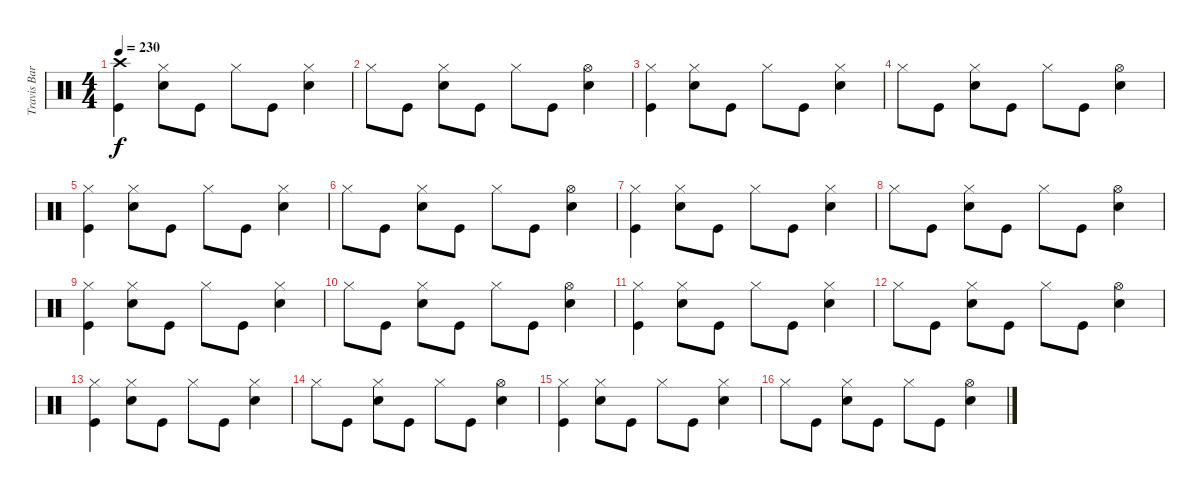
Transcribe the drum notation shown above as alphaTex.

\track ("Travis Barker" "Travis Bar") {instrument percussion}
\staff {score}
\articulation defaults
\ts (4 4)
\tempo 230
\clef neutral
\ks c
("Crash high (hit)" "Kick (hit)").4{dy f} ("Hi-Hat (closed)" "Electric Snare (hit)").8 "Kick (hit)".8 "Hi-Hat (closed)".8 "Kick (hit)".8 ("Hi-Hat (closed)" "Electric Snare (hit)").4 |
"Hi-Hat (closed)".8 "Kick (hit)".8 ("Hi-Hat (closed)" "Electric Snare (hit)").8 "Kick (hit)".8 "Hi-Hat (closed)".8 "Kick (hit)".8 ("Hi-Hat (open)" "Electric Snare (hit)").4 |
("Hi-Hat (closed)" "Kick (hit)").4 ("Hi-Hat (closed)" "Electric Snare (hit)").8 "Kick (hit)".8 "Hi-Hat (closed)".8 "Kick (hit)".8 ("Hi-Hat (closed)" "Electric Snare (hit)").4 |
"Hi-Hat (closed)".8 "Kick (hit)".8 ("Hi-Hat (closed)" "Electric Snare (hit)").8 "Kick (hit)".8 "Hi-Hat (closed)".8 "Kick (hit)".8 ("Hi-Hat (open)" "Electric Snare (hit)").4 |
("Hi-Hat (closed)" "Kick (hit)").4 ("Hi-Hat (closed)" "Electric Snare (hit)").8 "Kick (hit)".8 "Hi-Hat (closed)".8 "Kick (hit)".8 ("Hi-Hat (closed)" "Electric Snare (hit)").4 |
"Hi-Hat (closed)".8 "Kick (hit)".8 ("Hi-Hat (closed)" "Electric Snare (hit)").8 "Kick (hit)".8 "Hi-Hat (closed)".8 "Kick (hit)".8 ("Hi-Hat (open)" "Electric Snare (hit)").4 |
("Hi-Hat (closed)" "Kick (hit)").4 ("Hi-Hat (closed)" "Electric Snare (hit)").8 "Kick (hit)".8 "Hi-Hat (closed)".8 "Kick (hit)".8 ("Hi-Hat (closed)" "Electric Snare (hit)").4 |
"Hi-Hat (closed)".8 "Kick (hit)".8 ("Hi-Hat (closed)" "Electric Snare (hit)").8 "Kick (hit)".8 "Hi-Hat (closed)".8 "Kick (hit)".8 ("Hi-Hat (open)" "Electric Snare (hit)").4 |
("Hi-Hat (closed)" "Kick (hit)").4 ("Hi-Hat (closed)" "Electric Snare (hit)").8 "Kick (hit)".8 "Hi-Hat (closed)".8 "Kick (hit)".8 ("Hi-Hat (closed)" "Electric Snare (hit)").4 |
"Hi-Hat (closed)".8 "Kick (hit)".8 ("Hi-Hat (closed)" "Electric Snare (hit)").8 "Kick (hit)".8 "Hi-Hat (closed)".8 "Kick (hit)".8 ("Hi-Hat (open)" "Electric Snare (hit)").4 |
("Hi-Hat (closed)" "Kick (hit)").4 ("Hi-Hat (closed)" "Electric Snare (hit)").8 "Kick (hit)".8 "Hi-Hat (closed)".8 "Kick (hit)".8 ("Hi-Hat (closed)" "Electric Snare (hit)").4 |
"Hi-Hat (closed)".8 "Kick (hit)".8 ("Hi-Hat (closed)" "Electric Snare (hit)").8 "Kick (hit)".8 "Hi-Hat (closed)".8 "Kick (hit)".8 ("Hi-Hat (open)" "Electric Snare (hit)").4 |
("Hi-Hat (closed)" "Kick (hit)").4 ("Hi-Hat (closed)" "Electric Snare (hit)").8 "Kick (hit)".8 "Hi-Hat (closed)".8 "Kick (hit)".8 ("Hi-Hat (closed)" "Electric Snare (hit)").4 |
"Hi-Hat (closed)".8 "Kick (hit)".8 ("Hi-Hat (closed)" "Electric Snare (hit)").8 "Kick (hit)".8 "Hi-Hat (closed)".8 "Kick (hit)".8 ("Hi-Hat (open)" "Electric Snare (hit)").4 |
("Hi-Hat (closed)" "Kick (hit)").4 ("Hi-Hat (closed)" "Electric Snare (hit)").8 "Kick (hit)".8 "Hi-Hat (closed)".8 "Kick (hit)".8 ("Hi-Hat (closed)" "Electric Snare (hit)").4 |
"Hi-Hat (closed)".8 "Kick (hit)".8 ("Hi-Hat (closed)" "Electric Snare (hit)").8 "Kick (hit)".8 "Hi-Hat (closed)".8 "Kick (hit)".8 ("Hi-Hat (open)" "Electric Snare (hit)").4
